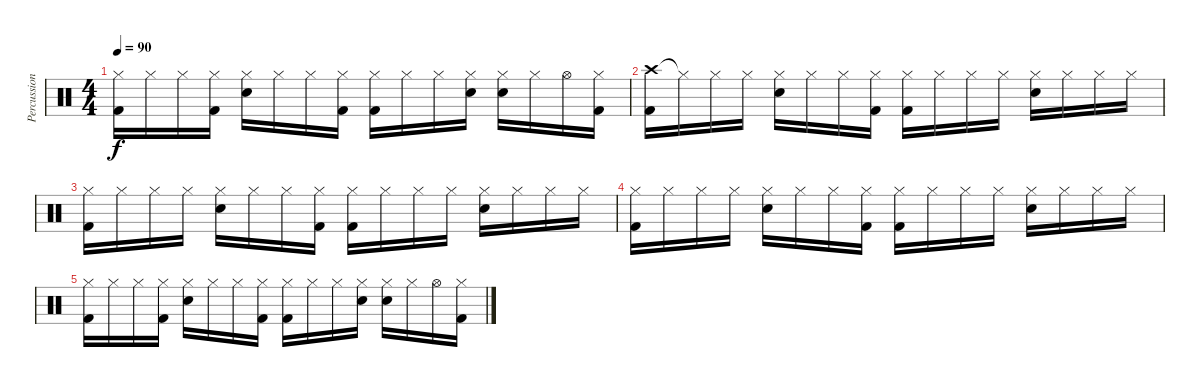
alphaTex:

\track ("Percussion" "Percussion") {instrument percussion}
\staff {score}
\articulation defaults
\ts (4 4)
\tempo 90
\clef neutral
\ks c
("Hi-Hat (closed)" "Kick (hit) 2").16{dy f} "Hi-Hat (closed)".16 "Hi-Hat (closed)".16 ("Hi-Hat (closed)" "Kick (hit) 2").16 ("Hi-Hat (closed)" "Electric Snare (hit)").16 "Hi-Hat (closed)".16 "Hi-Hat (closed)".16 ("Hi-Hat (closed)" "Kick (hit) 2").16 ("Hi-Hat (closed)" "Kick (hit) 2").16 "Hi-Hat (closed)".16 "Hi-Hat (closed)".16 ("Hi-Hat (closed)" "Electric Snare (hit)").16 ("Hi-Hat (closed)" "Electric Snare (hit)").16 "Hi-Hat (closed)".16 "Hi-Hat (open)".16 ("Hi-Hat (closed)" "Kick (hit) 2").16 |
("Crash high (hit)" "Kick (hit) 2").16 "Hi-Hat (closed)"{t}.16 "Hi-Hat (closed)".16 "Hi-Hat (closed)".16 ("Hi-Hat (closed)" "Electric Snare (hit)").16 "Hi-Hat (closed)".16 "Hi-Hat (closed)".16 ("Hi-Hat (closed)" "Kick (hit) 2").16 ("Hi-Hat (closed)" "Kick (hit) 2").16 "Hi-Hat (closed)".16 "Hi-Hat (closed)".16 "Hi-Hat (closed)".16 ("Hi-Hat (closed)" "Electric Snare (hit)").16 "Hi-Hat (closed)".16 "Hi-Hat (closed)".16 "Hi-Hat (closed)".16 |
("Hi-Hat (closed)" "Kick (hit) 2").16 "Hi-Hat (closed)".16 "Hi-Hat (closed)".16 "Hi-Hat (closed)".16 ("Hi-Hat (closed)" "Electric Snare (hit)").16 "Hi-Hat (closed)".16 "Hi-Hat (closed)".16 ("Hi-Hat (closed)" "Kick (hit) 2").16 ("Hi-Hat (closed)" "Kick (hit) 2").16 "Hi-Hat (closed)".16 "Hi-Hat (closed)".16 "Hi-Hat (closed)".16 ("Hi-Hat (closed)" "Electric Snare (hit)").16 "Hi-Hat (closed)".16 "Hi-Hat (closed)".16 "Hi-Hat (closed)".16 |
("Hi-Hat (closed)" "Kick (hit) 2").16 "Hi-Hat (closed)".16 "Hi-Hat (closed)".16 "Hi-Hat (closed)".16 ("Hi-Hat (closed)" "Electric Snare (hit)").16 "Hi-Hat (closed)".16 "Hi-Hat (closed)".16 ("Hi-Hat (closed)" "Kick (hit) 2").16 ("Hi-Hat (closed)" "Kick (hit) 2").16 "Hi-Hat (closed)".16 "Hi-Hat (closed)".16 "Hi-Hat (closed)".16 ("Hi-Hat (closed)" "Electric Snare (hit)").16 "Hi-Hat (closed)".16 "Hi-Hat (closed)".16 "Hi-Hat (closed)".16 |
("Hi-Hat (closed)" "Kick (hit) 2").16 "Hi-Hat (closed)".16 "Hi-Hat (closed)".16 ("Hi-Hat (closed)" "Kick (hit) 2").16 ("Hi-Hat (closed)" "Electric Snare (hit)").16 "Hi-Hat (closed)".16 "Hi-Hat (closed)".16 ("Hi-Hat (closed)" "Kick (hit) 2").16 ("Hi-Hat (closed)" "Kick (hit) 2").16 "Hi-Hat (closed)".16 "Hi-Hat (closed)".16 ("Hi-Hat (closed)" "Electric Snare (hit)").16 ("Hi-Hat (closed)" "Electric Snare (hit)").16 "Hi-Hat (closed)".16 "Hi-Hat (open)".16 ("Hi-Hat (closed)" "Kick (hit) 2").16
